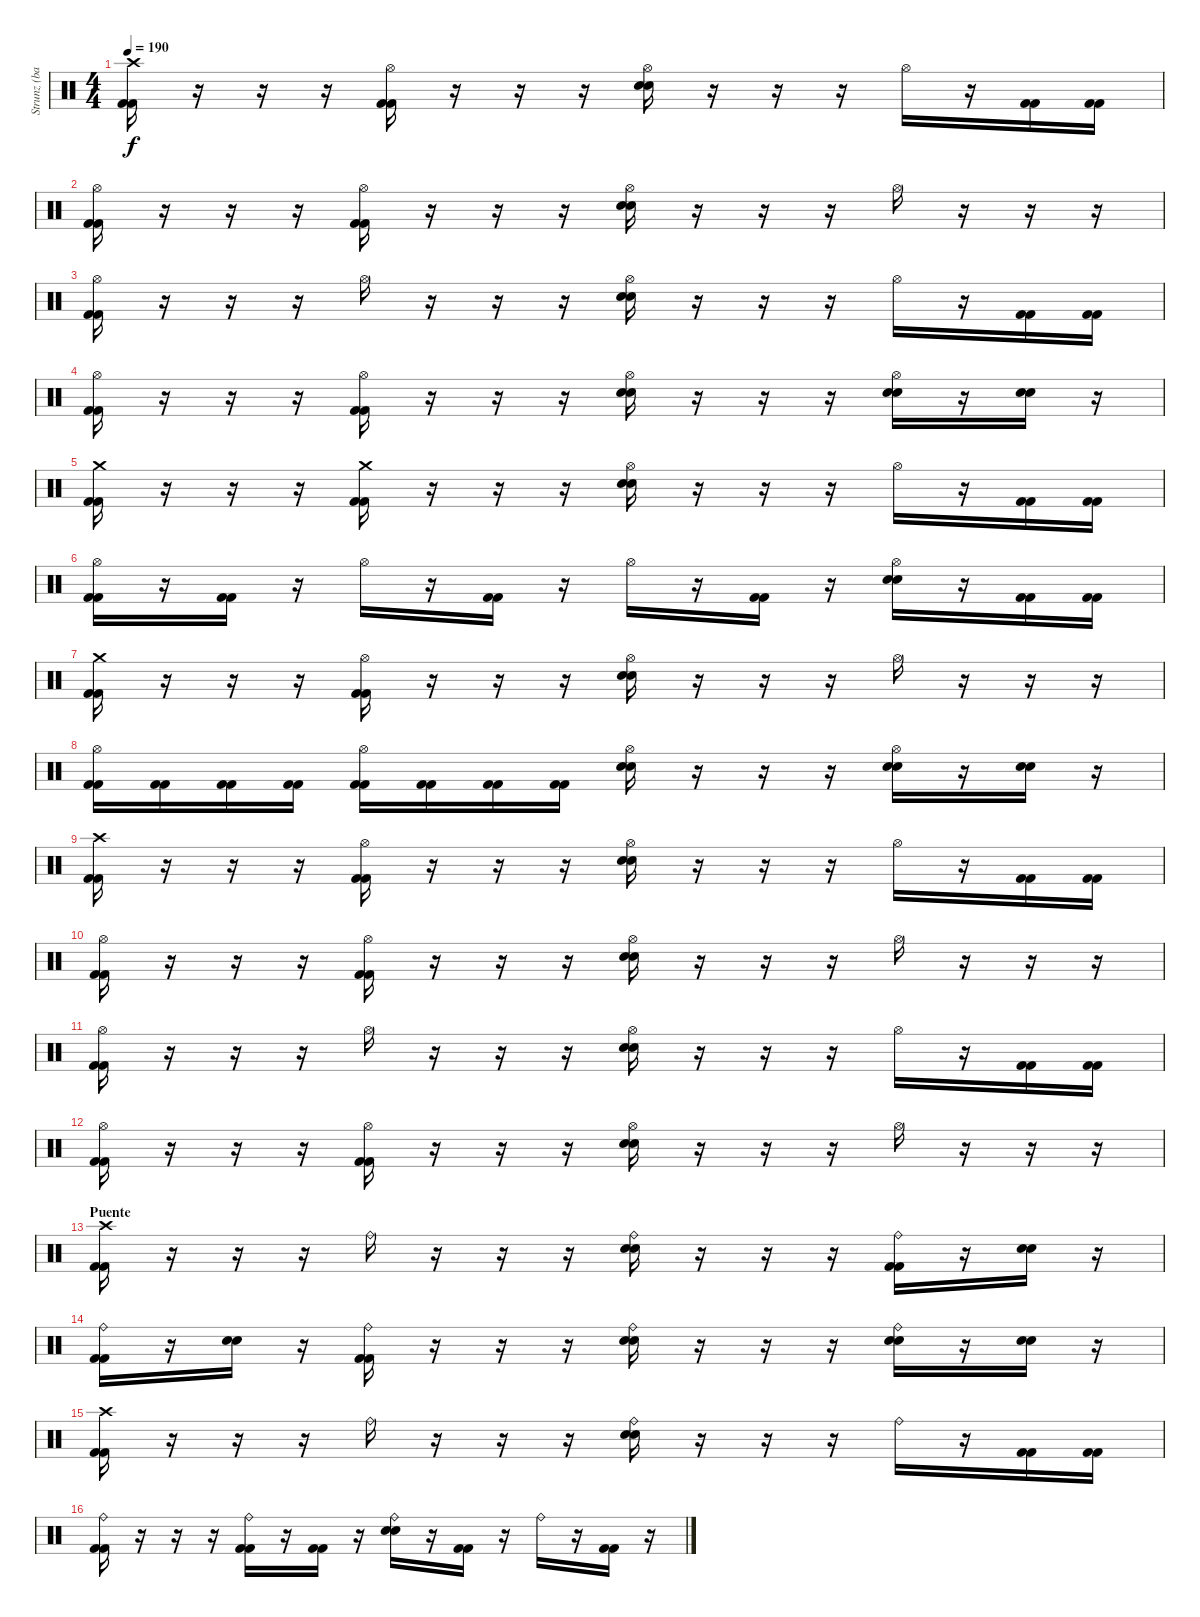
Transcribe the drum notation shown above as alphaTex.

\track ("Strunz (bateria)" "Strunz (ba") {instrument percussion}
\staff {score}
\articulation defaults
\ts (4 4)
\tempo 190
\clef neutral
\ks c
("Crash high (hit)" "Kick (hit) 2" "Kick (hit) 2").16{dy f} r.16 r.16 r.16 ("Hi-Hat (open)" "Kick (hit) 2" "Kick (hit) 2").16 r.16 r.16 r.16 ("Hi-Hat (open)" "Snare (hit) 2" "Snare (hit) 2").16 r.16 r.16 r.16 "Hi-Hat (open)".16 r.16 ("Kick (hit) 2" "Kick (hit) 2").16 ("Kick (hit) 2" "Kick (hit) 2").16 |
("Hi-Hat (open)" "Kick (hit) 2" "Kick (hit) 2").16 r.16 r.16 r.16 ("Hi-Hat (open)" "Kick (hit) 2" "Kick (hit) 2").16 r.16 r.16 r.16 ("Hi-Hat (open)" "Snare (hit) 2" "Snare (hit) 2").16 r.16 r.16 r.16 "Hi-Hat (open)".16 r.16 r.16 r.16 |
("Hi-Hat (open)" "Kick (hit) 2" "Kick (hit) 2").16 r.16 r.16 r.16 "Hi-Hat (open)".16 r.16 r.16 r.16 ("Hi-Hat (open)" "Snare (hit) 2" "Snare (hit) 2").16 r.16 r.16 r.16 "Hi-Hat (open)".16 r.16 ("Kick (hit) 2" "Kick (hit) 2").16 ("Kick (hit) 2" "Kick (hit) 2").16 |
("Hi-Hat (open)" "Kick (hit) 2" "Kick (hit) 2").16 r.16 r.16 r.16 ("Hi-Hat (open)" "Kick (hit) 2" "Kick (hit) 2").16 r.16 r.16 r.16 ("Hi-Hat (open)" "Snare (hit) 2" "Snare (hit) 2").16 r.16 r.16 r.16 ("Hi-Hat (open)" "Snare (hit) 2" "Snare (hit) 2").16 r.16 ("Snare (hit) 2" "Snare (hit) 2").16 r.16 |
("Crash medium (hit)" "Kick (hit) 2" "Kick (hit) 2").16 r.16 r.16 r.16 ("Crash medium (hit)" "Kick (hit) 2" "Kick (hit) 2").16 r.16 r.16 r.16 ("Hi-Hat (open)" "Snare (hit) 2" "Snare (hit) 2").16 r.16 r.16 r.16 "Hi-Hat (open)".16 r.16 ("Kick (hit) 2" "Kick (hit) 2").16 ("Kick (hit) 2" "Kick (hit) 2").16 |
("Hi-Hat (open)" "Kick (hit) 2" "Kick (hit) 2").16 r.16 ("Kick (hit) 2" "Kick (hit) 2").16 r.16 "Hi-Hat (open)".16 r.16 ("Kick (hit) 2" "Kick (hit) 2").16 r.16 "Hi-Hat (open)".16 r.16 ("Kick (hit) 2" "Kick (hit) 2").16 r.16 ("Hi-Hat (open)" "Snare (hit) 2" "Snare (hit) 2").16 r.16 ("Kick (hit) 2" "Kick (hit) 2").16 ("Kick (hit) 2" "Kick (hit) 2").16 |
("Crash medium (hit)" "Kick (hit) 2" "Kick (hit) 2").16 r.16 r.16 r.16 ("Hi-Hat (open)" "Kick (hit) 2" "Kick (hit) 2").16 r.16 r.16 r.16 ("Hi-Hat (open)" "Snare (hit) 2" "Snare (hit) 2").16 r.16 r.16 r.16 "Hi-Hat (open)".16 r.16 r.16 r.16 |
("Hi-Hat (open)" "Kick (hit) 2" "Kick (hit) 2").16 ("Kick (hit) 2" "Kick (hit) 2").16 ("Kick (hit) 2" "Kick (hit) 2").16 ("Kick (hit) 2" "Kick (hit) 2").16 ("Hi-Hat (open)" "Kick (hit) 2" "Kick (hit) 2").16 ("Kick (hit) 2" "Kick (hit) 2").16 ("Kick (hit) 2" "Kick (hit) 2").16 ("Kick (hit) 2" "Kick (hit) 2").16 ("Hi-Hat (open)" "Snare (hit) 2" "Snare (hit) 2").16 r.16 r.16 r.16 ("Hi-Hat (open)" "Snare (hit) 2" "Snare (hit) 2").16 r.16 ("Snare (hit) 2" "Snare (hit) 2").16 r.16 |
("Crash high (hit)" "Kick (hit) 2" "Kick (hit) 2").16 r.16 r.16 r.16 ("Hi-Hat (open)" "Kick (hit) 2" "Kick (hit) 2").16 r.16 r.16 r.16 ("Hi-Hat (open)" "Snare (hit) 2" "Snare (hit) 2").16 r.16 r.16 r.16 "Hi-Hat (open)".16 r.16 ("Kick (hit) 2" "Kick (hit) 2").16 ("Kick (hit) 2" "Kick (hit) 2").16 |
("Hi-Hat (open)" "Kick (hit) 2" "Kick (hit) 2").16 r.16 r.16 r.16 ("Hi-Hat (open)" "Kick (hit) 2" "Kick (hit) 2").16 r.16 r.16 r.16 ("Hi-Hat (open)" "Snare (hit) 2" "Snare (hit) 2").16 r.16 r.16 r.16 "Hi-Hat (open)".16 r.16 r.16 r.16 |
("Hi-Hat (open)" "Kick (hit) 2" "Kick (hit) 2").16 r.16 r.16 r.16 "Hi-Hat (open)".16 r.16 r.16 r.16 ("Hi-Hat (open)" "Snare (hit) 2" "Snare (hit) 2").16 r.16 r.16 r.16 "Hi-Hat (open)".16 r.16 ("Kick (hit) 2" "Kick (hit) 2").16 ("Kick (hit) 2" "Kick (hit) 2").16 |
("Hi-Hat (open)" "Kick (hit) 2" "Kick (hit) 2").16 r.16 r.16 r.16 ("Hi-Hat (open)" "Kick (hit) 2" "Kick (hit) 2").16 r.16 r.16 r.16 ("Hi-Hat (open)" "Snare (hit) 2" "Snare (hit) 2").16 r.16 r.16 r.16 "Hi-Hat (open)".16 r.16 r.16 r.16 |
\section ("" "Puente")
("Crash high (hit)" "Kick (hit) 2" "Kick (hit) 2").16 r.16 r.16 r.16 "Ride (bell)".16 r.16 r.16 r.16 ("Ride (bell)" "Snare (hit) 2" "Snare (hit) 2").16 r.16 r.16 r.16 ("Ride (bell)" "Kick (hit) 2" "Kick (hit) 2").16 r.16 ("Snare (hit) 2" "Snare (hit) 2").16 r.16 |
("Ride (bell)" "Kick (hit) 2" "Kick (hit) 2").16 r.16 ("Snare (hit) 2" "Snare (hit) 2").16 r.16 ("Ride (bell)" "Kick (hit) 2" "Kick (hit) 2").16 r.16 r.16 r.16 ("Ride (bell)" "Snare (hit) 2" "Snare (hit) 2").16 r.16 r.16 r.16 ("Ride (bell)" "Snare (hit) 2" "Snare (hit) 2").16 r.16 ("Snare (hit) 2" "Snare (hit) 2").16 r.16 |
("Crash high (hit)" "Kick (hit) 2" "Kick (hit) 2").16 r.16 r.16 r.16 "Ride (bell)".16 r.16 r.16 r.16 ("Ride (bell)" "Snare (hit) 2" "Snare (hit) 2").16 r.16 r.16 r.16 "Ride (bell)".16 r.16 ("Kick (hit) 2" "Kick (hit) 2").16 ("Kick (hit) 2" "Kick (hit) 2").16 |
("Ride (bell)" "Kick (hit) 2" "Kick (hit) 2").16 r.16 r.16 r.16 ("Ride (bell)" "Kick (hit) 2" "Kick (hit) 2").16 r.16 ("Kick (hit) 2" "Kick (hit) 2").16 r.16 ("Ride (bell)" "Snare (hit) 2" "Snare (hit) 2").16 r.16 ("Kick (hit) 2" "Kick (hit) 2").16 r.16 "Ride (bell)".16 r.16 ("Kick (hit) 2" "Kick (hit) 2").16 r.16
